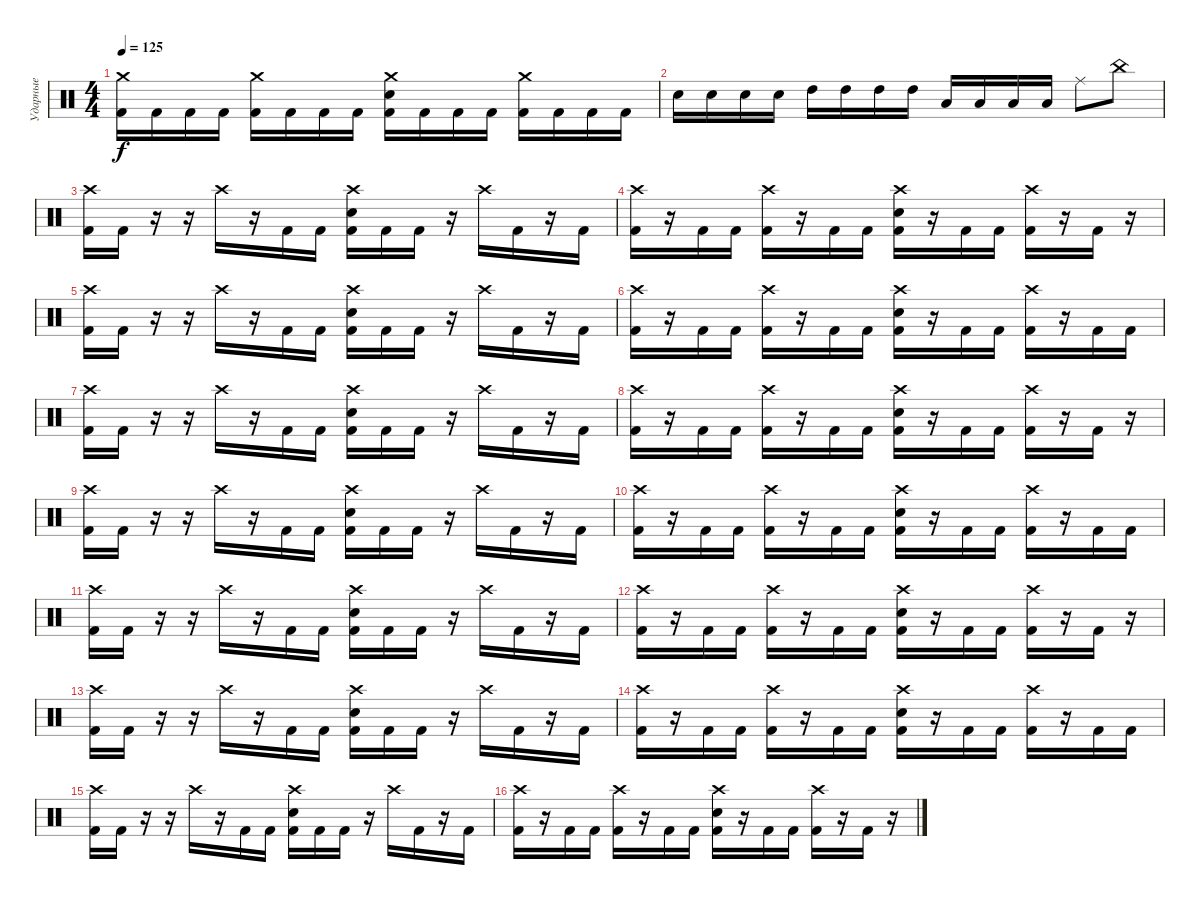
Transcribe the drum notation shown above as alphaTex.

\track ("Ударные" "Ударные") {instrument percussion}
\staff {score}
\articulation defaults
\ts (4 4)
\tempo 125
\clef neutral
\ks c
("Crash medium (hit)" "Kick (hit) 2").16{dy f} "Kick (hit) 2".16 "Kick (hit) 2".16 "Kick (hit) 2".16 ("Crash medium (hit)" "Kick (hit) 2").16 "Kick (hit) 2".16 "Kick (hit) 2".16 "Kick (hit) 2".16 ("Crash medium (hit)" "Electric Snare (hit)" "Kick (hit) 2").16 "Kick (hit) 2".16 "Kick (hit) 2".16 "Kick (hit) 2".16 ("Crash medium (hit)" "Kick (hit) 2").16 "Kick (hit) 2".16 "Kick (hit) 2".16 "Kick (hit) 2".16 |
"Electric Snare (hit)".16 "Electric Snare (hit)".16 "Electric Snare (hit)".16 "Electric Snare (hit)".16 "High Tom (hit)".16 "High Tom (hit)".16 "High Tom (hit)".16 "High Tom (hit)".16 "Low Tom (hit)".16 "Low Tom (hit)".16 "Low Tom (hit)".16 "Low Tom (hit)".16 "Ride (middle)".8 "China (hit)".8 |
("Crash high (hit)" "Kick (hit) 2").16 "Kick (hit) 2".16 r.16 r.16 "Crash high (hit)".16 r.16 "Kick (hit) 2".16 "Kick (hit) 2".16 ("Crash high (hit)" "Electric Snare (hit)" "Kick (hit) 2").16 "Kick (hit) 2".16 "Kick (hit) 2".16 r.16 "Crash high (hit)".16 "Kick (hit) 2".16 r.16 "Kick (hit) 2".16 |
("Crash high (hit)" "Kick (hit) 2").16 r.16 "Kick (hit) 2".16 "Kick (hit) 2".16 ("Crash high (hit)" "Kick (hit) 2").16 r.16 "Kick (hit) 2".16 "Kick (hit) 2".16 ("Crash high (hit)" "Electric Snare (hit)" "Kick (hit) 2").16 r.16 "Kick (hit) 2".16 "Kick (hit) 2".16 ("Crash high (hit)" "Kick (hit) 2").16 r.16 "Kick (hit) 2".16 r.16 |
("Crash high (hit)" "Kick (hit) 2").16 "Kick (hit) 2".16 r.16 r.16 "Crash high (hit)".16 r.16 "Kick (hit) 2".16 "Kick (hit) 2".16 ("Crash high (hit)" "Electric Snare (hit)" "Kick (hit) 2").16 "Kick (hit) 2".16 "Kick (hit) 2".16 r.16 "Crash high (hit)".16 "Kick (hit) 2".16 r.16 "Kick (hit) 2".16 |
("Crash high (hit)" "Kick (hit) 2").16 r.16 "Kick (hit) 2".16 "Kick (hit) 2".16 ("Crash high (hit)" "Kick (hit) 2").16 r.16 "Kick (hit) 2".16 "Kick (hit) 2".16 ("Crash high (hit)" "Electric Snare (hit)" "Kick (hit) 2").16 r.16 "Kick (hit) 2".16 "Kick (hit) 2".16 ("Crash high (hit)" "Kick (hit) 2").16 r.16 "Kick (hit) 2".16 "Kick (hit) 2".16 |
("Crash high (hit)" "Kick (hit) 2").16 "Kick (hit) 2".16 r.16 r.16 "Crash high (hit)".16 r.16 "Kick (hit) 2".16 "Kick (hit) 2".16 ("Crash high (hit)" "Electric Snare (hit)" "Kick (hit) 2").16 "Kick (hit) 2".16 "Kick (hit) 2".16 r.16 "Crash high (hit)".16 "Kick (hit) 2".16 r.16 "Kick (hit) 2".16 |
("Crash high (hit)" "Kick (hit) 2").16 r.16 "Kick (hit) 2".16 "Kick (hit) 2".16 ("Crash high (hit)" "Kick (hit) 2").16 r.16 "Kick (hit) 2".16 "Kick (hit) 2".16 ("Crash high (hit)" "Electric Snare (hit)" "Kick (hit) 2").16 r.16 "Kick (hit) 2".16 "Kick (hit) 2".16 ("Crash high (hit)" "Kick (hit) 2").16 r.16 "Kick (hit) 2".16 r.16 |
("Crash high (hit)" "Kick (hit) 2").16 "Kick (hit) 2".16 r.16 r.16 "Crash high (hit)".16 r.16 "Kick (hit) 2".16 "Kick (hit) 2".16 ("Crash high (hit)" "Electric Snare (hit)" "Kick (hit) 2").16 "Kick (hit) 2".16 "Kick (hit) 2".16 r.16 "Crash high (hit)".16 "Kick (hit) 2".16 r.16 "Kick (hit) 2".16 |
("Crash high (hit)" "Kick (hit) 2").16 r.16 "Kick (hit) 2".16 "Kick (hit) 2".16 ("Crash high (hit)" "Kick (hit) 2").16 r.16 "Kick (hit) 2".16 "Kick (hit) 2".16 ("Crash high (hit)" "Electric Snare (hit)" "Kick (hit) 2").16 r.16 "Kick (hit) 2".16 "Kick (hit) 2".16 ("Crash high (hit)" "Kick (hit) 2").16 r.16 "Kick (hit) 2".16 "Kick (hit) 2".16 |
("Crash high (hit)" "Kick (hit) 2").16 "Kick (hit) 2".16 r.16 r.16 "Crash high (hit)".16 r.16 "Kick (hit) 2".16 "Kick (hit) 2".16 ("Crash high (hit)" "Electric Snare (hit)" "Kick (hit) 2").16 "Kick (hit) 2".16 "Kick (hit) 2".16 r.16 "Crash high (hit)".16 "Kick (hit) 2".16 r.16 "Kick (hit) 2".16 |
("Crash high (hit)" "Kick (hit) 2").16 r.16 "Kick (hit) 2".16 "Kick (hit) 2".16 ("Crash high (hit)" "Kick (hit) 2").16 r.16 "Kick (hit) 2".16 "Kick (hit) 2".16 ("Crash high (hit)" "Electric Snare (hit)" "Kick (hit) 2").16 r.16 "Kick (hit) 2".16 "Kick (hit) 2".16 ("Crash high (hit)" "Kick (hit) 2").16 r.16 "Kick (hit) 2".16 r.16 |
("Crash high (hit)" "Kick (hit) 2").16 "Kick (hit) 2".16 r.16 r.16 "Crash high (hit)".16 r.16 "Kick (hit) 2".16 "Kick (hit) 2".16 ("Crash high (hit)" "Electric Snare (hit)" "Kick (hit) 2").16 "Kick (hit) 2".16 "Kick (hit) 2".16 r.16 "Crash high (hit)".16 "Kick (hit) 2".16 r.16 "Kick (hit) 2".16 |
("Crash high (hit)" "Kick (hit) 2").16 r.16 "Kick (hit) 2".16 "Kick (hit) 2".16 ("Crash high (hit)" "Kick (hit) 2").16 r.16 "Kick (hit) 2".16 "Kick (hit) 2".16 ("Crash high (hit)" "Electric Snare (hit)" "Kick (hit) 2").16 r.16 "Kick (hit) 2".16 "Kick (hit) 2".16 ("Crash high (hit)" "Kick (hit) 2").16 r.16 "Kick (hit) 2".16 "Kick (hit) 2".16 |
("Crash high (hit)" "Kick (hit) 2").16 "Kick (hit) 2".16 r.16 r.16 "Crash high (hit)".16 r.16 "Kick (hit) 2".16 "Kick (hit) 2".16 ("Crash high (hit)" "Electric Snare (hit)" "Kick (hit) 2").16 "Kick (hit) 2".16 "Kick (hit) 2".16 r.16 "Crash high (hit)".16 "Kick (hit) 2".16 r.16 "Kick (hit) 2".16 |
("Crash high (hit)" "Kick (hit) 2").16 r.16 "Kick (hit) 2".16 "Kick (hit) 2".16 ("Crash high (hit)" "Kick (hit) 2").16 r.16 "Kick (hit) 2".16 "Kick (hit) 2".16 ("Crash high (hit)" "Electric Snare (hit)" "Kick (hit) 2").16 r.16 "Kick (hit) 2".16 "Kick (hit) 2".16 ("Crash high (hit)" "Kick (hit) 2").16 r.16 "Kick (hit) 2".16 r.16
